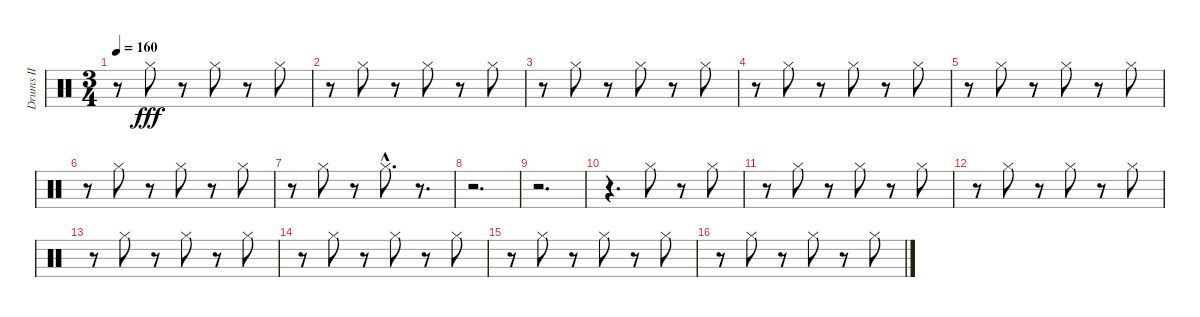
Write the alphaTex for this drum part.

\track ("Drums II" "Drums II") {instrument percussion}
\staff {score}
\articulation defaults
\ts (3 4)
\tempo 160
\clef neutral
\ks c
r.8{dy fff} "Hi-Hat (closed)".8 r.8 "Hi-Hat (closed)".8 r.8 "Hi-Hat (closed)".8 |
r.8 "Hi-Hat (closed)".8 r.8 "Hi-Hat (closed)".8 r.8 "Hi-Hat (closed)".8 |
r.8 "Hi-Hat (closed)".8 r.8 "Hi-Hat (closed)".8 r.8 "Hi-Hat (closed)".8 |
r.8 "Hi-Hat (closed)".8 r.8 "Hi-Hat (closed)".8 r.8 "Hi-Hat (closed)".8 |
r.8 "Hi-Hat (closed)".8 r.8 "Hi-Hat (closed)".8 r.8 "Hi-Hat (closed)".8 |
r.8 "Hi-Hat (closed)".8 r.8 "Hi-Hat (closed)".8 r.8 "Hi-Hat (closed)".8 |
r.8 "Hi-Hat (closed)".8 r.8 "Hi-Hat (closed)"{hac}.8{d} r.8{d} |
r.2{d} |
r.2{d} |
r.4{d} "Hi-Hat (closed)".8 r.8 "Hi-Hat (closed)".8 |
r.8 "Hi-Hat (closed)".8 r.8 "Hi-Hat (closed)".8 r.8 "Hi-Hat (closed)".8 |
r.8 "Hi-Hat (closed)".8 r.8 "Hi-Hat (closed)".8 r.8 "Hi-Hat (closed)".8 |
r.8 "Hi-Hat (closed)".8 r.8 "Hi-Hat (closed)".8 r.8 "Hi-Hat (closed)".8 |
r.8 "Hi-Hat (closed)".8 r.8 "Hi-Hat (closed)".8 r.8 "Hi-Hat (closed)".8 |
r.8 "Hi-Hat (closed)".8 r.8 "Hi-Hat (closed)".8 r.8 "Hi-Hat (closed)".8 |
r.8 "Hi-Hat (closed)".8 r.8 "Hi-Hat (closed)".8 r.8 "Hi-Hat (closed)".8
